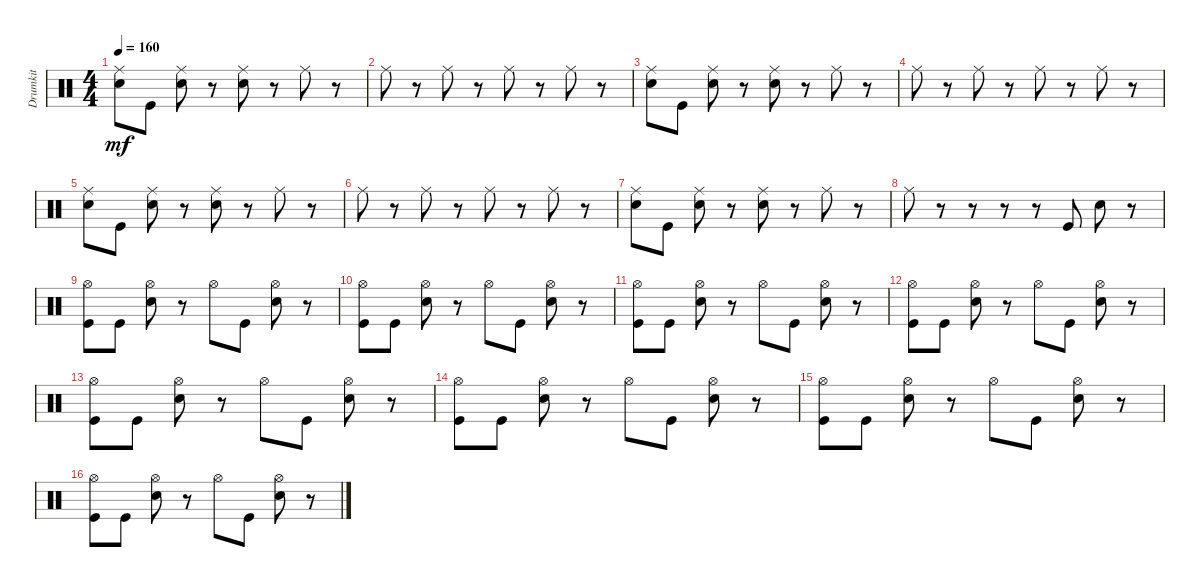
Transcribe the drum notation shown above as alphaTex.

\track ("Drumkit" "Drumkit") {instrument percussion}
\staff {score}
\articulation defaults
\ts (4 4)
\tempo 160
\clef neutral
\ks c
("Snare (hit) 2" "Ride (middle)").8{dy mf} "Kick (hit)".8 ("Snare (hit) 2" "Ride (middle)").8 r.8 ("Ride (middle)" "Snare (hit) 2").8 r.8 "Ride (middle)".8 r.8 |
"Ride (middle)".8 r.8 "Ride (middle)".8 r.8 "Ride (middle)".8 r.8 "Ride (middle)".8 r.8 |
("Snare (hit) 2" "Ride (middle)").8 "Kick (hit)".8 ("Snare (hit) 2" "Ride (middle)").8 r.8 ("Ride (middle)" "Snare (hit) 2").8 r.8 "Ride (middle)".8 r.8 |
"Ride (middle)".8 r.8 "Ride (middle)".8 r.8 "Ride (middle)".8 r.8 "Ride (middle)".8 r.8 |
("Snare (hit) 2" "Ride (middle)").8 "Kick (hit)".8 ("Snare (hit) 2" "Ride (middle)").8 r.8 ("Ride (middle)" "Snare (hit) 2").8 r.8 "Ride (middle)".8 r.8 |
"Ride (middle)".8 r.8 "Ride (middle)".8 r.8 "Ride (middle)".8 r.8 "Ride (middle)".8 r.8 |
("Snare (hit) 2" "Ride (middle)").8 "Kick (hit)".8 ("Snare (hit) 2" "Ride (middle)").8 r.8 ("Ride (middle)" "Snare (hit) 2").8 r.8 "Ride (middle)".8 r.8 |
"Ride (middle)".8 r.8 r.8 r.8 r.8 "Kick (hit)".8 "Snare (hit) 2".8 r.8 |
("Kick (hit)" "Hi-Hat (open)").8 "Kick (hit)".8 ("Snare (hit) 2" "Hi-Hat (open)").8 r.8 "Hi-Hat (open)".8 "Kick (hit)".8 ("Snare (hit) 2" "Hi-Hat (open)").8 r.8 |
("Kick (hit)" "Hi-Hat (open)").8 "Kick (hit)".8 ("Snare (hit) 2" "Hi-Hat (open)").8 r.8 "Hi-Hat (open)".8 "Kick (hit)".8 ("Snare (hit) 2" "Hi-Hat (open)").8 r.8 |
("Kick (hit)" "Hi-Hat (open)").8 "Kick (hit)".8 ("Snare (hit) 2" "Hi-Hat (open)").8 r.8 "Hi-Hat (open)".8 "Kick (hit)".8 ("Snare (hit) 2" "Hi-Hat (open)").8 r.8 |
("Kick (hit)" "Hi-Hat (open)").8 "Kick (hit)".8 ("Snare (hit) 2" "Hi-Hat (open)").8 r.8 "Hi-Hat (open)".8 "Kick (hit)".8 ("Snare (hit) 2" "Hi-Hat (open)").8 r.8 |
("Kick (hit)" "Hi-Hat (open)").8 "Kick (hit)".8 ("Snare (hit) 2" "Hi-Hat (open)").8 r.8 "Hi-Hat (open)".8 "Kick (hit)".8 ("Snare (hit) 2" "Hi-Hat (open)").8 r.8 |
("Kick (hit)" "Hi-Hat (open)").8 "Kick (hit)".8 ("Snare (hit) 2" "Hi-Hat (open)").8 r.8 "Hi-Hat (open)".8 "Kick (hit)".8 ("Snare (hit) 2" "Hi-Hat (open)").8 r.8 |
("Kick (hit)" "Hi-Hat (open)").8 "Kick (hit)".8 ("Snare (hit) 2" "Hi-Hat (open)").8 r.8 "Hi-Hat (open)".8 "Kick (hit)".8 ("Snare (hit) 2" "Hi-Hat (open)").8 r.8 |
("Kick (hit)" "Hi-Hat (open)").8 "Kick (hit)".8 ("Snare (hit) 2" "Hi-Hat (open)").8 r.8 "Hi-Hat (open)".8 "Kick (hit)".8 ("Snare (hit) 2" "Hi-Hat (open)").8 r.8
